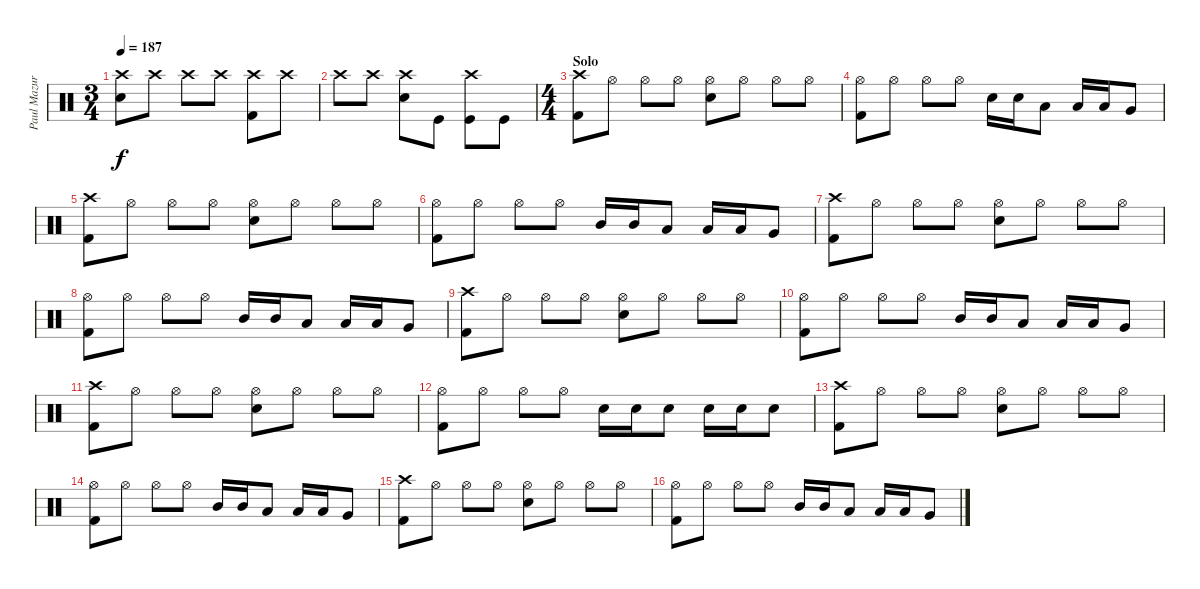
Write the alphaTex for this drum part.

\track ("Paul Mazurkiewicz - Drums" "Paul Mazur") {instrument percussion}
\staff {score}
\articulation defaults
\ts (3 4)
\tempo 187
\clef neutral
\ks c
("Crash high (hit)" "Snare (hit) 2").8{dy f} "Crash high (hit)".8 "Crash high (hit)".8 "Crash high (hit)".8 ("Crash high (hit)" "Kick (hit) 2").8 "Crash high (hit)".8 |
"Crash high (hit)".8 "Crash high (hit)".8 ("Crash high (hit)" "Snare (hit) 2").8 "Kick (hit)".8 ("Crash high (hit)" "Kick (hit)").8 "Kick (hit)".8 |
\ts (4 4)
\section ("" "Solo")
("Crash high (hit)" "Kick (hit) 2").8 "Hi-Hat (open)".8 "Hi-Hat (open)".8 "Hi-Hat (open)".8 ("Hi-Hat (open)" "Snare (hit) 2").8 "Hi-Hat (open)".8 "Hi-Hat (open)".8 "Hi-Hat (open)".8 |
("Hi-Hat (open)" "Kick (hit) 2").8 "Hi-Hat (open)".8 "Hi-Hat (open)".8 "Hi-Hat (open)".8 "Snare (hit) 2".16 "Snare (hit) 2".16 "Low Tom (hit)".8 "Low Tom (hit)".16 "Low Tom (hit)".16 "Very Low Tom (hit)".8 |
("Crash high (hit)" "Kick (hit) 2").8 "Hi-Hat (open)".8 "Hi-Hat (open)".8 "Hi-Hat (open)".8 ("Hi-Hat (open)" "Snare (hit) 2").8 "Hi-Hat (open)".8 "Hi-Hat (open)".8 "Hi-Hat (open)".8 |
("Hi-Hat (open)" "Kick (hit) 2").8 "Hi-Hat (open)".8 "Hi-Hat (open)".8 "Hi-Hat (open)".8 "Mid Tom (hit)".16 "Mid Tom (hit)".16 "Low Tom (hit)".8 "Low Tom (hit)".16 "Low Tom (hit)".16 "Very Low Tom (hit)".8 |
("Crash high (hit)" "Kick (hit) 2").8 "Hi-Hat (open)".8 "Hi-Hat (open)".8 "Hi-Hat (open)".8 ("Hi-Hat (open)" "Snare (hit) 2").8 "Hi-Hat (open)".8 "Hi-Hat (open)".8 "Hi-Hat (open)".8 |
("Hi-Hat (open)" "Kick (hit) 2").8 "Hi-Hat (open)".8 "Hi-Hat (open)".8 "Hi-Hat (open)".8 "Mid Tom (hit)".16 "Mid Tom (hit)".16 "Low Tom (hit)".8 "Low Tom (hit)".16 "Low Tom (hit)".16 "Very Low Tom (hit)".8 |
("Crash high (hit)" "Kick (hit) 2").8 "Hi-Hat (open)".8 "Hi-Hat (open)".8 "Hi-Hat (open)".8 ("Hi-Hat (open)" "Snare (hit) 2").8 "Hi-Hat (open)".8 "Hi-Hat (open)".8 "Hi-Hat (open)".8 |
("Hi-Hat (open)" "Kick (hit) 2").8 "Hi-Hat (open)".8 "Hi-Hat (open)".8 "Hi-Hat (open)".8 "Mid Tom (hit)".16 "Mid Tom (hit)".16 "Low Tom (hit)".8 "Low Tom (hit)".16 "Low Tom (hit)".16 "Very Low Tom (hit)".8 |
("Crash high (hit)" "Kick (hit) 2").8 "Hi-Hat (open)".8 "Hi-Hat (open)".8 "Hi-Hat (open)".8 ("Hi-Hat (open)" "Snare (hit) 2").8 "Hi-Hat (open)".8 "Hi-Hat (open)".8 "Hi-Hat (open)".8 |
("Hi-Hat (open)" "Kick (hit) 2").8 "Hi-Hat (open)".8 "Hi-Hat (open)".8 "Hi-Hat (open)".8 "Snare (hit) 2".16 "Snare (hit) 2".16 "Snare (hit) 2".8 "Snare (hit) 2".16 "Snare (hit) 2".16 "Snare (hit) 2".8 |
("Crash high (hit)" "Kick (hit) 2").8 "Hi-Hat (open)".8 "Hi-Hat (open)".8 "Hi-Hat (open)".8 ("Hi-Hat (open)" "Snare (hit) 2").8 "Hi-Hat (open)".8 "Hi-Hat (open)".8 "Hi-Hat (open)".8 |
("Hi-Hat (open)" "Kick (hit) 2").8 "Hi-Hat (open)".8 "Hi-Hat (open)".8 "Hi-Hat (open)".8 "Mid Tom (hit)".16 "Mid Tom (hit)".16 "Low Tom (hit)".8 "Low Tom (hit)".16 "Low Tom (hit)".16 "Very Low Tom (hit)".8 |
("Crash high (hit)" "Kick (hit) 2").8 "Hi-Hat (open)".8 "Hi-Hat (open)".8 "Hi-Hat (open)".8 ("Hi-Hat (open)" "Snare (hit) 2").8 "Hi-Hat (open)".8 "Hi-Hat (open)".8 "Hi-Hat (open)".8 |
("Hi-Hat (open)" "Kick (hit) 2").8 "Hi-Hat (open)".8 "Hi-Hat (open)".8 "Hi-Hat (open)".8 "Mid Tom (hit)".16 "Mid Tom (hit)".16 "Low Tom (hit)".8 "Low Tom (hit)".16 "Low Tom (hit)".16 "Very Low Tom (hit)".8
